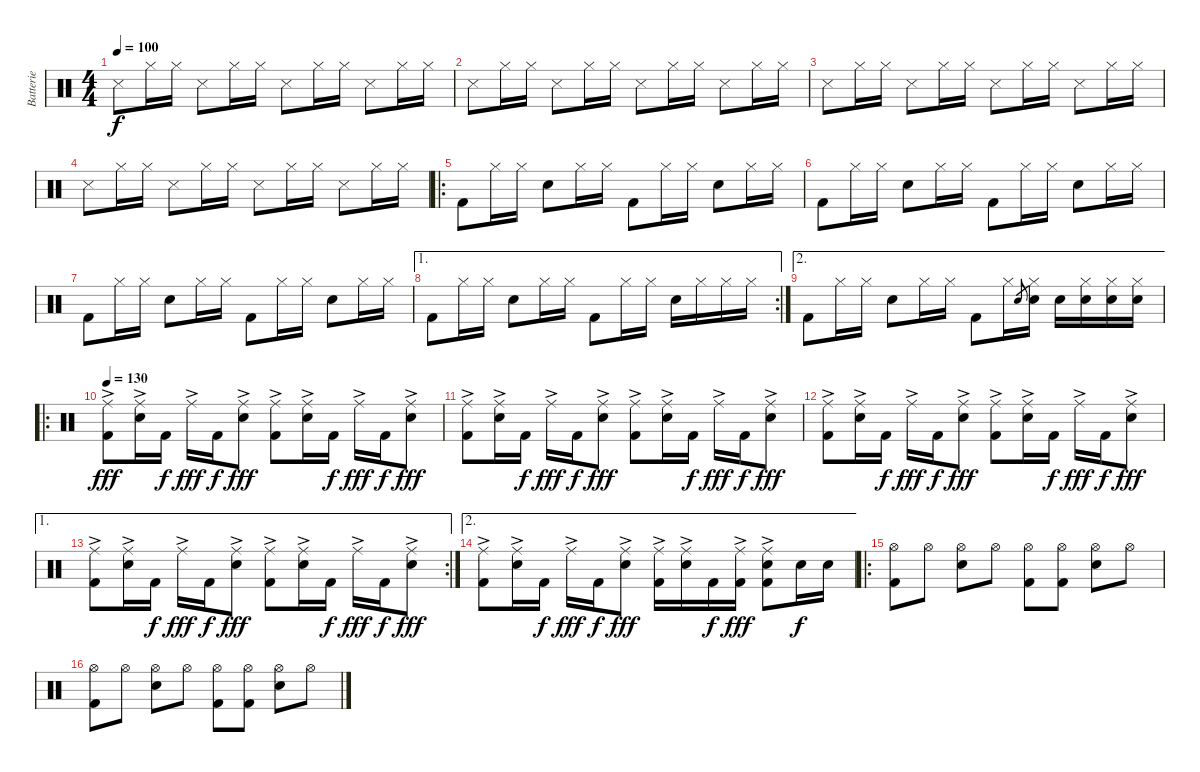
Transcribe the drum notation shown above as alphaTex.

\track ("Batterie" "Batterie") {instrument percussion}
\staff {score}
\articulation defaults
\ts (4 4)
\tempo 100
\clef neutral
\ks c "Snare (side stick) 3".8{dy f} "Hi-Hat (closed)".16 "Hi-Hat (closed)".16 "Snare (side stick) 3".8 "Hi-Hat (closed)".16 "Hi-Hat (closed)".16 "Snare (side stick) 3".8 "Hi-Hat (closed)".16 "Hi-Hat (closed)".16 "Snare (side stick) 3".8 "Hi-Hat (closed)".16 "Hi-Hat (closed)".16
|
"Snare (side stick) 3".8 "Hi-Hat (closed)".16 "Hi-Hat (closed)".16 "Snare (side stick) 3".8 "Hi-Hat (closed)".16 "Hi-Hat (closed)".16 "Snare (side stick) 3".8 "Hi-Hat (closed)".16 "Hi-Hat (closed)".16 "Snare (side stick) 3".8 "Hi-Hat (closed)".16 "Hi-Hat (closed)".16 |
"Snare (side stick) 3".8 "Hi-Hat (closed)".16 "Hi-Hat (closed)".16 "Snare (side stick) 3".8 "Hi-Hat (closed)".16 "Hi-Hat (closed)".16 "Snare (side stick) 3".8 "Hi-Hat (closed)".16 "Hi-Hat (closed)".16 "Snare (side stick) 3".8 "Hi-Hat (closed)".16 "Hi-Hat (closed)".16 |
"Snare (side stick) 3".8 "Hi-Hat (closed)".16 "Hi-Hat (closed)".16 "Snare (side stick) 3".8 "Hi-Hat (closed)".16 "Hi-Hat (closed)".16 "Snare (side stick) 3".8 "Hi-Hat (closed)".16 "Hi-Hat (closed)".16 "Snare (side stick) 3".8 "Hi-Hat (closed)".16 "Hi-Hat (closed)".16 |
\ro "Kick (hit) 2".8 "Hi-Hat (closed)".16 "Hi-Hat (closed)".16 "Snare (hit) 2".8 "Hi-Hat (closed)".16 "Hi-Hat (closed)".16 "Kick (hit) 2".8 "Hi-Hat (closed)".16 "Hi-Hat (closed)".16 "Snare (hit) 2".8 "Hi-Hat (closed)".16 "Hi-Hat (closed)".16
|
"Kick (hit) 2".8 "Hi-Hat (closed)".16 "Hi-Hat (closed)".16 "Snare (hit) 2".8 "Hi-Hat (closed)".16 "Hi-Hat (closed)".16 "Kick (hit) 2".8 "Hi-Hat (closed)".16 "Hi-Hat (closed)".16 "Snare (hit) 2".8 "Hi-Hat (closed)".16 "Hi-Hat (closed)".16 |
"Kick (hit) 2".8 "Hi-Hat (closed)".16 "Hi-Hat (closed)".16 "Snare (hit) 2".8 "Hi-Hat (closed)".16 "Hi-Hat (closed)".16 "Kick (hit) 2".8 "Hi-Hat (closed)".16 "Hi-Hat (closed)".16 "Snare (hit) 2".8 "Hi-Hat (closed)".16 "Hi-Hat (closed)".16 |
\ae 1
\rc 2 "Kick (hit) 2".8 "Hi-Hat (closed)".16 "Hi-Hat (closed)".16 "Snare (hit) 2".8 "Hi-Hat (closed)".16 "Hi-Hat (closed)".16 "Kick (hit) 2".8 "Hi-Hat (closed)".16 "Hi-Hat (closed)".16 "Snare (hit) 2".16 "Hi-Hat (closed)".16 "Hi-Hat (closed)".16 "Hi-Hat (closed)".16
|
\ae 2 "Kick (hit) 2".8 "Hi-Hat (closed)".16 "Hi-Hat (closed)".16 "Snare (hit) 2".8 "Hi-Hat (closed)".16 "Hi-Hat (closed)".16 "Kick (hit) 2".8 "Hi-Hat (closed)".16 "Snare (hit) 2".8{gr}
("Hi-Hat (closed)" "Snare (hit) 2").16 "Snare (hit) 2".16 ("Hi-Hat (closed)" "Snare (hit) 2").16 ("Hi-Hat (closed)" "Snare (hit) 2").16 ("Hi-Hat (closed)" "Snare (hit) 2").16 |
\ro
\tempo 130
("Ride (middle)"{ac} "Kick (hit) 2").8{dy fff} ("Ride (middle)"{ac} "Snare (hit) 2").16 "Kick (hit) 2".16{dy f} "Ride (middle)"{ac}.16{dy fff} "Kick (hit) 2".16{dy f} ("Ride (middle)"{ac} "Snare (hit) 2").8{dy fff} ("Ride (middle)"{ac} "Kick (hit) 2").8 ("Ride (middle)"{ac} "Snare (hit) 2").16 "Kick (hit) 2".16{dy f} "Ride (middle)"{ac}.16{dy fff} "Kick (hit) 2".16{dy f} ("Ride (middle)"{ac} "Snare (hit) 2").8{dy fff} |
("Ride (middle)"{ac} "Kick (hit) 2").8 ("Ride (middle)"{ac} "Snare (hit) 2").16 "Kick (hit) 2".16{dy f} "Ride (middle)"{ac}.16{dy fff} "Kick (hit) 2".16{dy f} ("Ride (middle)"{ac} "Snare (hit) 2").8{dy fff} ("Ride (middle)"{ac} "Kick (hit) 2").8 ("Ride (middle)"{ac} "Snare (hit) 2").16 "Kick (hit) 2".16{dy f} "Ride (middle)"{ac}.16{dy fff} "Kick (hit) 2".16{dy f} ("Ride (middle)"{ac} "Snare (hit) 2").8{dy fff} |
("Ride (middle)"{ac} "Kick (hit) 2").8 ("Ride (middle)"{ac} "Snare (hit) 2").16 "Kick (hit) 2".16{dy f} "Ride (middle)"{ac}.16{dy fff} "Kick (hit) 2".16{dy f} ("Ride (middle)"{ac} "Snare (hit) 2").8{dy fff} ("Ride (middle)"{ac} "Kick (hit) 2").8 ("Ride (middle)"{ac} "Snare (hit) 2").16 "Kick (hit) 2".16{dy f} "Ride (middle)"{ac}.16{dy fff} "Kick (hit) 2".16{dy f} ("Ride (middle)"{ac} "Snare (hit) 2").8{dy fff} |
\ae 1
\rc 2
("Ride (middle)"{ac} "Kick (hit) 2").8 ("Ride (middle)"{ac} "Snare (hit) 2").16 "Kick (hit) 2".16{dy f} "Ride (middle)"{ac}.16{dy fff} "Kick (hit) 2".16{dy f} ("Ride (middle)"{ac} "Snare (hit) 2").8{dy fff} ("Ride (middle)"{ac} "Kick (hit) 2").8 ("Ride (middle)"{ac} "Snare (hit) 2").16 "Kick (hit) 2".16{dy f} "Ride (middle)"{ac}.16{dy fff} "Kick (hit) 2".16{dy f} ("Ride (middle)"{ac} "Snare (hit) 2").8{dy fff} |
\ae 2
("Ride (middle)"{ac} "Kick (hit) 2").8 ("Ride (middle)"{ac} "Snare (hit) 2").16 "Kick (hit) 2".16{dy f} "Ride (middle)"{ac}.16{dy fff} "Kick (hit) 2".16{dy f} ("Ride (middle)"{ac} "Snare (hit) 2").8{dy fff} ("Ride (middle)"{ac} "Kick (hit) 2").16 ("Ride (middle)"{ac} "Snare (hit) 2").16 "Kick (hit) 2".16{dy f} ("Ride (middle)"{ac} "Kick (hit) 2").16{dy fff} ("Ride (middle)"{ac} "Snare (hit) 2" "Kick (hit) 2").8 "Snare (hit) 2".16{dy f} "Snare (hit) 2".16 |
\ro
("Hi-Hat (open)" "Kick (hit) 2").8 "Hi-Hat (open)".8 ("Hi-Hat (open)" "Snare (hit) 2").8 "Hi-Hat (open)".8 ("Hi-Hat (open)" "Kick (hit) 2").8 ("Hi-Hat (open)" "Kick (hit) 2").8 ("Hi-Hat (open)" "Snare (hit) 2").8 "Hi-Hat (open)".8 |
("Hi-Hat (open)" "Kick (hit) 2").8 "Hi-Hat (open)".8 ("Hi-Hat (open)" "Snare (hit) 2").8 "Hi-Hat (open)".8 ("Hi-Hat (open)" "Kick (hit) 2").8 ("Hi-Hat (open)" "Kick (hit) 2").8 ("Hi-Hat (open)" "Snare (hit) 2").8 "Hi-Hat (open)".8
